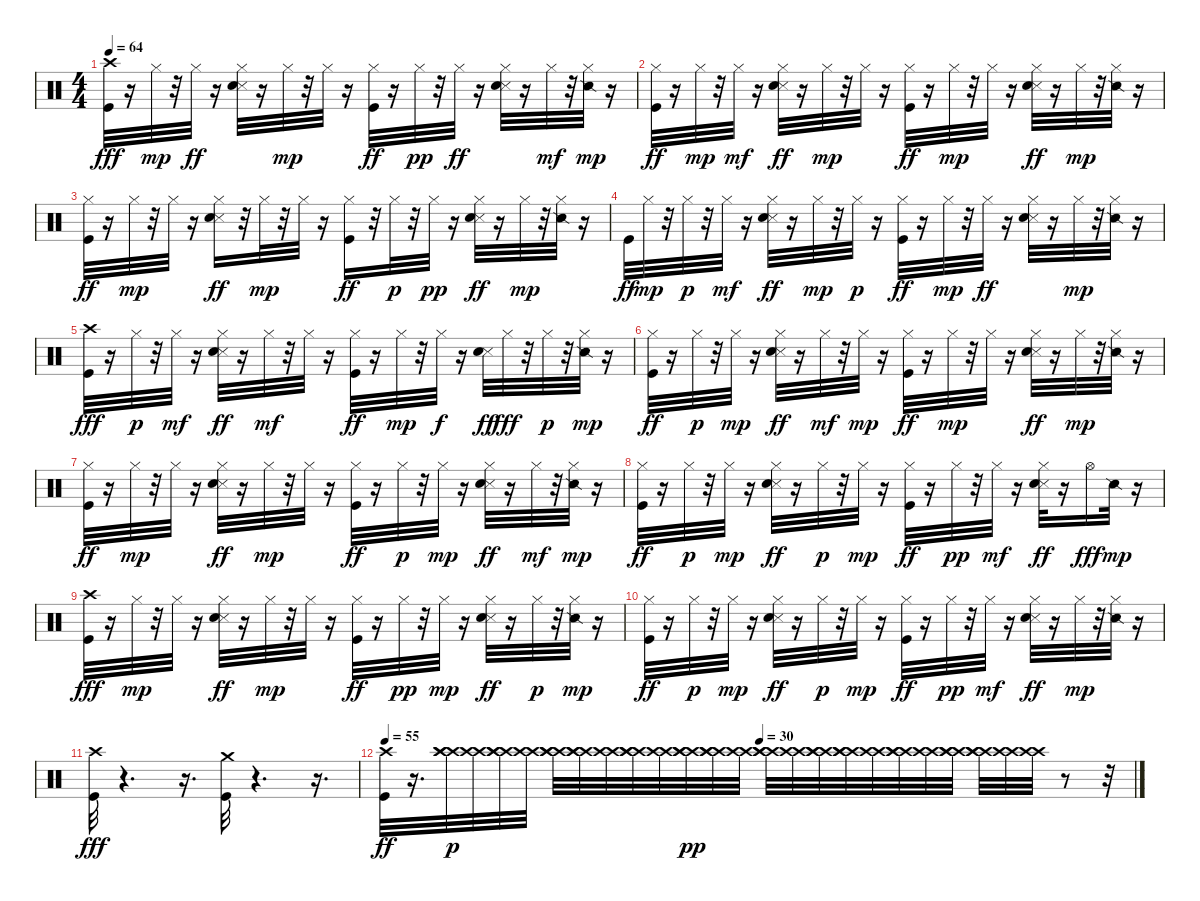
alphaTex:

\track "" {instrument percussion}
\staff {score}
\articulation defaults
\ts (4 4)
\tempo 64
\clef neutral
\ks c
("Kick (hit)" "Crash high (hit)").32{dy fff} r.16 "Hi-Hat (closed)".32{dy mp} r.32 "Hi-Hat (closed)".32{dy ff} r.16 ("Hi-Hat (closed)" "Snare (side stick) 3" "Electric Snare (hit)").32 r.16 "Hi-Hat (closed)".32{dy mp} r.32 "Hi-Hat (closed)".32 r.16 ("Hi-Hat (closed)" "Kick (hit)").32{dy ff} r.16 "Hi-Hat (closed)".32{dy pp} r.32 "Hi-Hat (closed)".32{dy ff} r.16 ("Hi-Hat (closed)" "Snare (side stick) 3" "Electric Snare (hit)").32 r.16 "Hi-Hat (closed)".32{dy mf} r.32 ("Hi-Hat (closed)" "Snare (side stick) 2").32{dy mp} r.16 |
("Hi-Hat (closed)" "Kick (hit)").32{dy ff} r.16 "Hi-Hat (closed)".32{dy mp} r.32 "Hi-Hat (closed)".32{dy mf} r.16 ("Hi-Hat (closed)" "Snare (side stick) 3" "Electric Snare (hit)").32{dy ff} r.16 "Hi-Hat (closed)".32{dy mp} r.32 "Hi-Hat (closed)".32 r.16 ("Hi-Hat (closed)" "Kick (hit)").32{dy ff} r.16 "Hi-Hat (closed)".32{dy mp} r.32 "Hi-Hat (closed)".32 r.16 ("Hi-Hat (closed)" "Snare (side stick) 3" "Electric Snare (hit)").32{dy ff} r.16 "Hi-Hat (closed)".32{dy mp} r.32 ("Hi-Hat (closed)" "Snare (side stick) 2").32 r.16 |
("Hi-Hat (closed)" "Kick (hit)").32{dy ff} r.16 "Hi-Hat (closed)".32{dy mp} r.32 "Hi-Hat (closed)".32 r.16 ("Hi-Hat (closed)" "Snare (side stick) 3" "Electric Snare (hit)").16{dy ff} r.32 "Hi-Hat (closed)".32{dy mp} r.32 "Hi-Hat (closed)".32 r.16 ("Hi-Hat (closed)" "Kick (hit)").16{dy ff} r.32 "Hi-Hat (closed)".32{dy p} r.32 "Hi-Hat (closed)".32{dy pp} r.16 ("Hi-Hat (closed)" "Snare (side stick) 3" "Electric Snare (hit)").32{dy ff} r.16 "Hi-Hat (closed)".32{dy mp} r.32 ("Hi-Hat (closed)" "Snare (side stick) 2").32 r.16 |
"Kick (hit)".32{dy ff} "Hi-Hat (closed)".32{dy mp} r.32 "Hi-Hat (closed)".32{dy p} r.32 "Hi-Hat (closed)".32{dy mf} r.16 ("Hi-Hat (closed)" "Snare (side stick) 3" "Electric Snare (hit)").32{dy ff} r.16 "Hi-Hat (closed)".32{dy mp} r.32 "Hi-Hat (closed)".32{dy p} r.16 ("Hi-Hat (closed)" "Kick (hit)").32{dy ff} r.16 "Hi-Hat (closed)".32{dy mp} r.32 "Hi-Hat (closed)".32{dy ff} r.16 ("Hi-Hat (closed)" "Snare (side stick) 3" "Electric Snare (hit)").32 r.16 "Hi-Hat (closed)".32{dy mp} r.32 ("Hi-Hat (closed)" "Snare (side stick) 2").32 r.16 |
("Kick (hit)" "Crash high (hit)").32{dy fff} r.16 "Hi-Hat (closed)".32{dy p} r.32 "Hi-Hat (closed)".32{dy mf} r.16 ("Hi-Hat (closed)" "Snare (side stick) 3" "Electric Snare (hit)").32{dy ff} r.16 "Hi-Hat (closed)".32{dy mf} r.32 "Hi-Hat (closed)".32 r.16 ("Hi-Hat (closed)" "Kick (hit)").32{dy ff} r.16 "Hi-Hat (closed)".32{dy mp} r.32 "Hi-Hat (closed)".32{dy f} r.16 ("Snare (side stick) 3" "Electric Snare (hit)").32{dy ff} "Hi-Hat (closed)".32{dy fff} r.32 "Hi-Hat (closed)".32{dy p} r.32 ("Hi-Hat (closed)" "Snare (side stick) 2").32{dy mp} r.16 |
("Hi-Hat (closed)" "Kick (hit)").32{dy ff} r.16 "Hi-Hat (closed)".32{dy p} r.32 "Hi-Hat (closed)".32{dy mp} r.16 ("Hi-Hat (closed)" "Snare (side stick) 3" "Electric Snare (hit)").32{dy ff} r.16 "Hi-Hat (closed)".32{dy mf} r.32 "Hi-Hat (closed)".32{dy mp} r.16 ("Hi-Hat (closed)" "Kick (hit)").32{dy ff} r.16 "Hi-Hat (closed)".32{dy mp} r.32 "Hi-Hat (closed)".32 r.16 ("Hi-Hat (closed)" "Snare (side stick) 3" "Electric Snare (hit)").32{dy ff} r.16 "Hi-Hat (closed)".32{dy mp} r.32 ("Hi-Hat (closed)" "Snare (side stick) 2").32 r.16 |
("Hi-Hat (closed)" "Kick (hit)").32{dy ff} r.16 "Hi-Hat (closed)".32{dy mp} r.32 "Hi-Hat (closed)".32 r.16 ("Hi-Hat (closed)" "Snare (side stick) 3" "Electric Snare (hit)").32{dy ff} r.16 "Hi-Hat (closed)".32{dy mp} r.32 "Hi-Hat (closed)".32 r.16 ("Hi-Hat (closed)" "Kick (hit)").32{dy ff} r.16 "Hi-Hat (closed)".32{dy p} r.32 "Hi-Hat (closed)".32{dy mp} r.16 ("Hi-Hat (closed)" "Snare (side stick) 3" "Electric Snare (hit)").32{dy ff} r.16 "Hi-Hat (closed)".32{dy mf} r.32 ("Hi-Hat (closed)" "Snare (side stick) 2").32{dy mp} r.16 |
("Hi-Hat (closed)" "Kick (hit)").32{dy ff} r.16 "Hi-Hat (closed)".32{dy p} r.32 "Hi-Hat (closed)".32{dy mp} r.16 ("Hi-Hat (closed)" "Snare (side stick) 3" "Electric Snare (hit)").32{dy ff} r.16 "Hi-Hat (closed)".32{dy p} r.32 "Hi-Hat (closed)".32{dy mp} r.16 ("Hi-Hat (closed)" "Kick (hit)").32{dy ff} r.16 "Hi-Hat (closed)".32{dy pp} r.32 "Hi-Hat (closed)".32{dy mf} r.16 ("Hi-Hat (closed)" "Snare (side stick) 3" "Electric Snare (hit)").32{dy ff} r.16 "Hi-Hat (open)".16{dy fff} "Snare (side stick) 2".32{dy mp} r.16 |
("Kick (hit)" "Crash high (hit)").32{dy fff} r.16 "Hi-Hat (closed)".32{dy mp} r.32 "Hi-Hat (closed)".32 r.16 ("Hi-Hat (closed)" "Snare (side stick) 3" "Electric Snare (hit)").32{dy ff} r.16 "Hi-Hat (closed)".32{dy mp} r.32 "Hi-Hat (closed)".32 r.16 ("Hi-Hat (closed)" "Kick (hit)").32{dy ff} r.16 "Hi-Hat (closed)".32{dy pp} r.32 "Hi-Hat (closed)".32{dy mp} r.16 ("Hi-Hat (closed)" "Snare (side stick) 3" "Electric Snare (hit)").32{dy ff} r.16 "Hi-Hat (closed)".32{dy p} r.32 ("Hi-Hat (closed)" "Snare (side stick) 2").32{dy mp} r.16 |
("Hi-Hat (closed)" "Kick (hit)").32{dy ff} r.16 "Hi-Hat (closed)".32{dy p} r.32 "Hi-Hat (closed)".32{dy mp} r.16 ("Hi-Hat (closed)" "Snare (side stick) 3" "Electric Snare (hit)").32{dy ff} r.16 "Hi-Hat (closed)".32{dy p} r.32 "Hi-Hat (closed)".32{dy mp} r.16 ("Hi-Hat (closed)" "Kick (hit)").32{dy ff} r.16 "Hi-Hat (closed)".32{dy pp} r.32 "Hi-Hat (closed)".32{dy mf} r.16 ("Hi-Hat (closed)" "Snare (side stick) 3" "Electric Snare (hit)").32{dy ff} r.16 "Hi-Hat (closed)".32{dy mp} r.32 ("Hi-Hat (closed)" "Snare (side stick) 2").32 r.16 |
("Kick (hit)" "Crash high (hit)").32{dy fff} r.4{d} r.16{d} ("Kick (hit)" "Crash medium (hit)").32 r.4{d} r.16{d} |
\tempo 55
\tempo (30 0.5)
("Kick (hit)" "Crash high (hit)").32{dy ff} r.16{d} ("Crash high (hit)" "Crash high (hit)" "Crash high (hit)").32{dy p} ("Crash high (hit)" "Crash high (hit)").32 ("Crash high (hit)" "Crash high (hit)" "Crash high (hit)").32 ("Crash high (hit)" "Crash high (hit)").32 ("Crash high (hit)" "Crash high (hit)" "Crash high (hit)").32 ("Crash high (hit)" "Crash high (hit)" "Crash high (hit)").32 ("Crash high (hit)" "Crash high (hit)").32 ("Crash high (hit)" "Crash high (hit)" "Crash high (hit)").32 ("Crash high (hit)" "Crash high (hit)").32 ("Crash high (hit)" "Crash high (hit)" "Crash high (hit)").32{dy pp} ("Crash high (hit)" "Crash high (hit)" "Crash high (hit)").32 ("Crash high (hit)" "Crash high (hit)").32 ("Crash high (hit)" "Crash high (hit)" "Crash high (hit)").32 ("Crash high (hit)" "Crash high (hit)").32 ("Crash high (hit)" "Crash high (hit)" "Crash high (hit)").32 ("Crash high (hit)" "Crash high (hit)" "Crash high (hit)").32 ("Crash high (hit)" "Crash high (hit)").32 ("Crash high (hit)" "Crash high (hit)" "Crash high (hit)").32 ("Crash high (hit)" "Crash high (hit)").32 ("Crash high (hit)" "Crash high (hit)" "Crash high (hit)").32 ("Crash high (hit)" "Crash high (hit)" "Crash high (hit)").32 ("Crash high (hit)" "Crash high (hit)").32 ("Crash high (hit)" "Crash high (hit)").32 r.8 r.32
